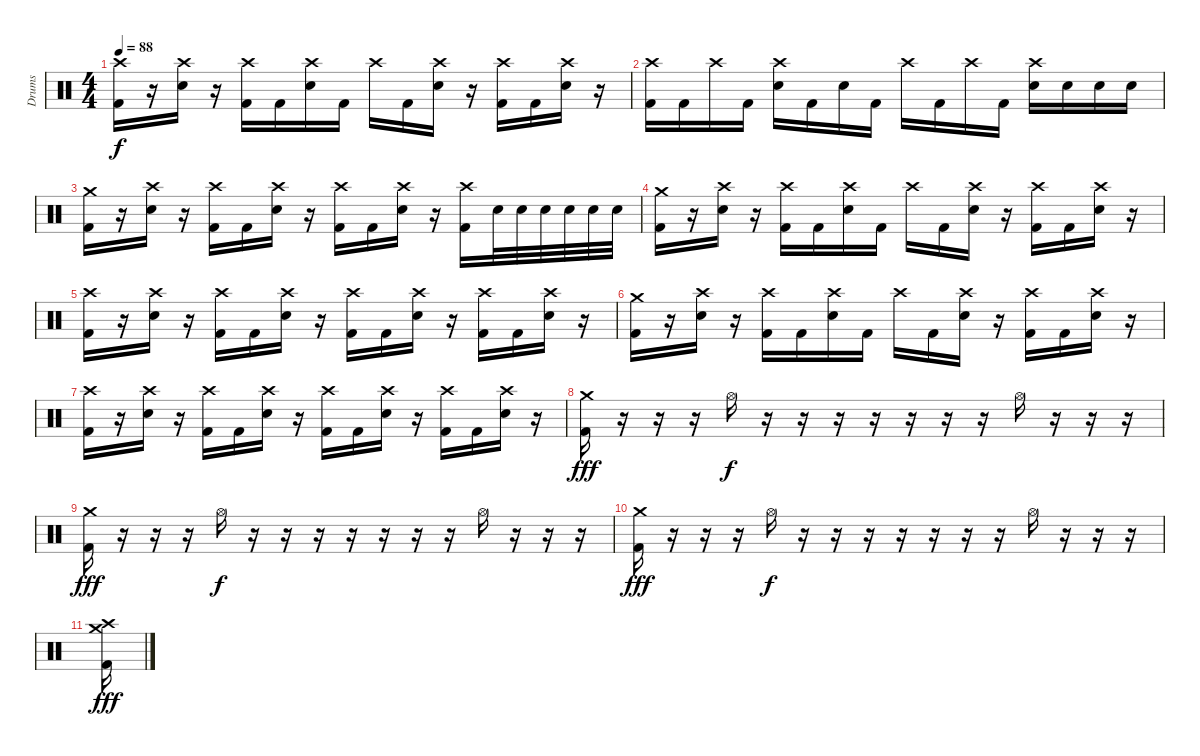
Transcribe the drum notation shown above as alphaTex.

\track ("Drums" "Drums") {instrument percussion}
\staff {score}
\articulation defaults
\ts (4 4)
\tempo 88
\clef neutral
\ks c
("Crash high (hit)" "Kick (hit) 2").16{dy f} r.16 ("Crash high (hit)" "Electric Snare (hit)").16 r.16 ("Crash high (hit)" "Kick (hit) 2").16 "Kick (hit) 2".16 ("Crash high (hit)" "Electric Snare (hit)").16 "Kick (hit) 2".16 "Crash high (hit)".16 "Kick (hit) 2".16 ("Crash high (hit)" "Electric Snare (hit)").16 r.16 ("Crash high (hit)" "Kick (hit) 2").16 "Kick (hit) 2".16 ("Crash high (hit)" "Electric Snare (hit)").16 r.16 |
("Crash high (hit)" "Kick (hit) 2").16 "Kick (hit) 2".16 "Crash high (hit)".16 "Kick (hit) 2".16 ("Crash high (hit)" "Electric Snare (hit)").16 "Kick (hit) 2".16 "Electric Snare (hit)".16 "Kick (hit) 2".16 "Crash high (hit)".16 "Kick (hit) 2".16 "Crash high (hit)".16 "Kick (hit) 2".16 ("Crash high (hit)" "Electric Snare (hit)").16 "Electric Snare (hit)".16 "Electric Snare (hit)".16 "Electric Snare (hit)".16 |
("Crash medium (hit)" "Kick (hit) 2").16 r.16 ("Crash high (hit)" "Electric Snare (hit)").16 r.16 ("Crash high (hit)" "Kick (hit) 2").16 "Kick (hit) 2".16 ("Crash high (hit)" "Electric Snare (hit)").16 r.16 ("Crash high (hit)" "Kick (hit) 2").16 "Kick (hit) 2".16 ("Crash high (hit)" "Electric Snare (hit)").16 r.16 ("Crash high (hit)" "Kick (hit) 2").16 "Electric Snare (hit)".32 "Electric Snare (hit)".32 "Electric Snare (hit)".32 "Electric Snare (hit)".32 "Electric Snare (hit)".32 "Electric Snare (hit)".32 |
("Crash medium (hit)" "Kick (hit) 2").16 r.16 ("Crash high (hit)" "Electric Snare (hit)").16 r.16 ("Crash high (hit)" "Kick (hit) 2").16 "Kick (hit) 2".16 ("Crash high (hit)" "Electric Snare (hit)").16 "Kick (hit) 2".16 "Crash high (hit)".16 "Kick (hit) 2".16 ("Crash high (hit)" "Electric Snare (hit)").16 r.16 ("Crash high (hit)" "Kick (hit) 2").16 "Kick (hit) 2".16 ("Crash high (hit)" "Electric Snare (hit)").16 r.16 |
("Crash high (hit)" "Kick (hit) 2").16 r.16 ("Crash high (hit)" "Electric Snare (hit)").16 r.16 ("Crash high (hit)" "Kick (hit) 2").16 "Kick (hit) 2".16 ("Crash high (hit)" "Electric Snare (hit)").16 r.16 ("Crash high (hit)" "Kick (hit) 2").16 "Kick (hit) 2".16 ("Crash high (hit)" "Electric Snare (hit)").16 r.16 ("Crash high (hit)" "Kick (hit) 2").16 "Kick (hit) 2".16 ("Crash high (hit)" "Electric Snare (hit)").16 r.16 |
("Crash medium (hit)" "Kick (hit) 2").16 r.16 ("Crash high (hit)" "Electric Snare (hit)").16 r.16 ("Crash high (hit)" "Kick (hit) 2").16 "Kick (hit) 2".16 ("Crash high (hit)" "Electric Snare (hit)").16 "Kick (hit) 2".16 "Crash high (hit)".16 "Kick (hit) 2".16 ("Crash high (hit)" "Electric Snare (hit)").16 r.16 ("Crash high (hit)" "Kick (hit) 2").16 "Kick (hit) 2".16 ("Crash high (hit)" "Electric Snare (hit)").16 r.16 |
("Crash high (hit)" "Kick (hit) 2").16 r.16 ("Crash high (hit)" "Electric Snare (hit)").16 r.16 ("Crash high (hit)" "Kick (hit) 2").16 "Kick (hit) 2".16 ("Crash high (hit)" "Electric Snare (hit)").16 r.16 ("Crash high (hit)" "Kick (hit) 2").16 "Kick (hit) 2".16 ("Crash high (hit)" "Electric Snare (hit)").16 r.16 ("Crash high (hit)" "Kick (hit) 2").16 "Kick (hit) 2".16 ("Crash high (hit)" "Electric Snare (hit)").16 r.16 |
("Crash medium (hit)" "Kick (hit) 2").16{dy fff} r.16 r.16 r.16 "Hi-Hat (open)".16{dy f} r.16 r.16 r.16 r.16 r.16 r.16 r.16 "Hi-Hat (open)".16 r.16 r.16 r.16 |
("Crash medium (hit)" "Kick (hit) 2").16{dy fff} r.16 r.16 r.16 "Hi-Hat (open)".16{dy f} r.16 r.16 r.16 r.16 r.16 r.16 r.16 "Hi-Hat (open)".16 r.16 r.16 r.16 |
("Crash medium (hit)" "Kick (hit) 2").16{dy fff} r.16 r.16 r.16 "Hi-Hat (open)".16{dy f} r.16 r.16 r.16 r.16 r.16 r.16 r.16 "Hi-Hat (open)".16 r.16 r.16 r.16 |
("Crash high (hit)" "Crash medium (hit)" "Kick (hit) 2").16{dy fff}
